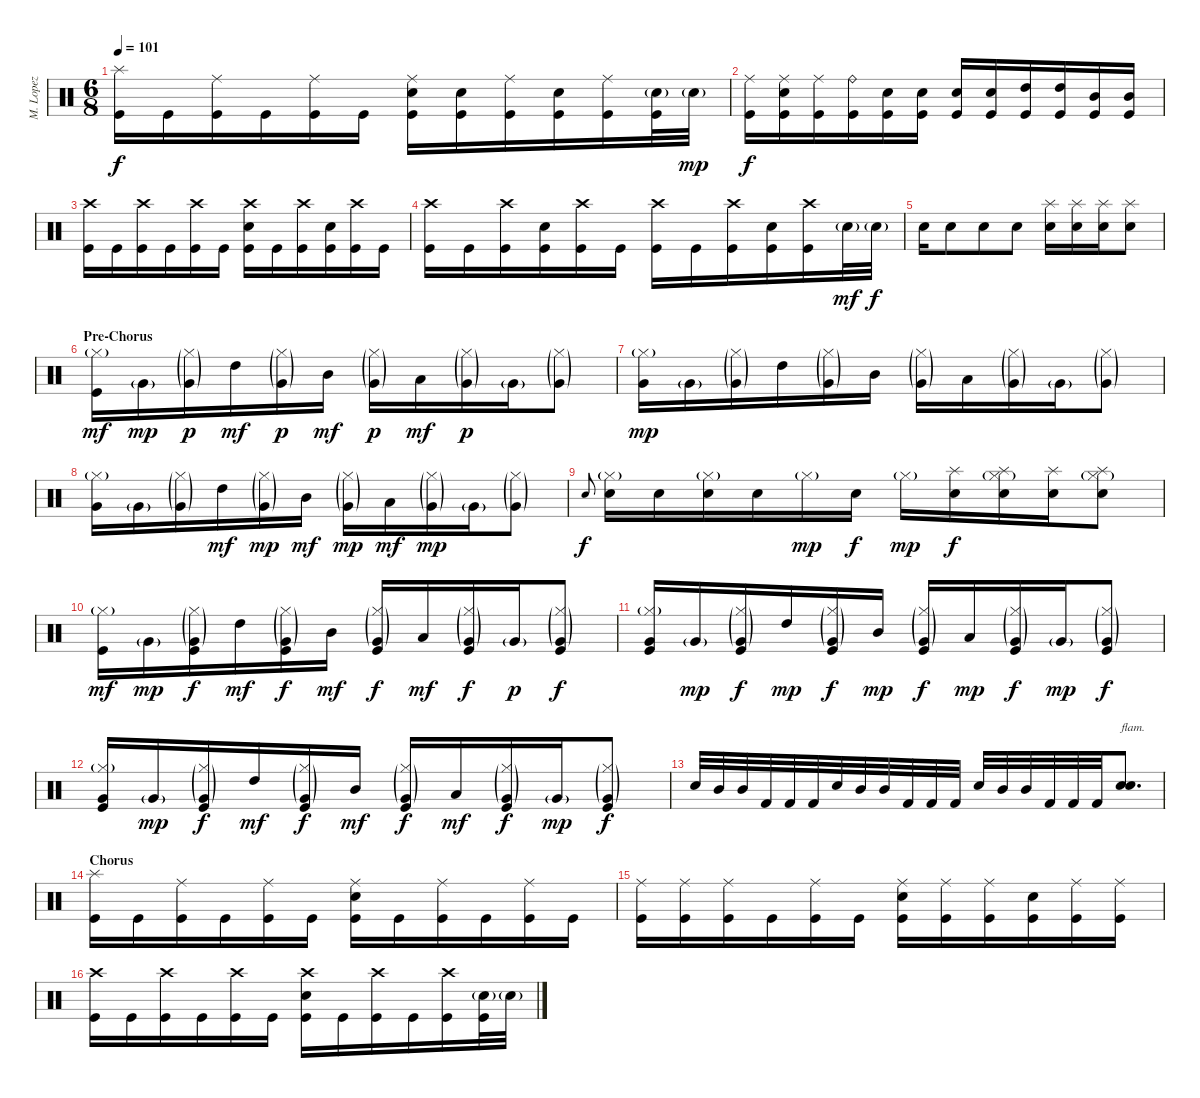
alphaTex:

\track ("M. Lopez" "M. Lopez") {instrument percussion}
\staff {score}
\articulation defaults
\ts (6 8)
\tempo 101
\clef neutral
\ks c
("Splash (hit)" "Kick (hit)").16{dy f} "Kick (hit)".16 ("Ride (middle)" "Kick (hit)").16 "Kick (hit)".16 ("Ride (middle)" "Kick (hit)").16 "Kick (hit)".16 ("Ride (middle)" "Electric Snare (hit)" "Kick (hit)").16 ("Electric Snare (hit)" "Kick (hit)").16 ("Ride (middle)" "Kick (hit)").16 ("Electric Snare (hit)" "Kick (hit)").16 ("Ride (middle)" "Kick (hit)").16 ("Electric Snare (hit)"{g} "Kick (hit)").32 "Electric Snare (hit)"{g}.32{dy mp} |
("Ride (middle)" "Kick (hit)").16{dy f} ("Ride (middle)" "Electric Snare (hit)" "Kick (hit)").16 ("Ride (middle)" "Kick (hit)").16 ("Ride (bell)" "Kick (hit)").16 ("Electric Snare (hit)" "Kick (hit)").16 ("Electric Snare (hit)" "Kick (hit)").16 ("Electric Snare (hit)" "Kick (hit)").16 ("Electric Snare (hit)" "Kick (hit)").16 ("High Tom (hit)" "Kick (hit)").16 ("High Tom (hit)" "Kick (hit)").16 ("Mid Tom (hit)" "Kick (hit)").16 ("Mid Tom (hit)" "Kick (hit)").16 |
("Crash high (hit)" "Kick (hit)").16 "Kick (hit)".16 ("Crash high (hit)" "Kick (hit)").16 "Kick (hit)".16 ("Crash high (hit)" "Kick (hit)").16 "Kick (hit)".16 ("Crash high (hit)" "Electric Snare (hit)" "Kick (hit)").16 "Kick (hit)".16 ("Crash high (hit)" "Kick (hit)").16 ("Electric Snare (hit)" "Kick (hit)").16 ("Crash high (hit)" "Kick (hit)").16 "Kick (hit)".16 |
("Crash high (hit)" "Kick (hit)").16 "Kick (hit)".16 ("Crash high (hit)" "Kick (hit)").16 ("Electric Snare (hit)" "Kick (hit)").16 ("Crash high (hit)" "Kick (hit)").16 "Kick (hit)".16 ("Crash high (hit)" "Kick (hit)").16 "Kick (hit)".16 ("Crash high (hit)" "Kick (hit)").16 ("Electric Snare (hit)" "Kick (hit)").16 ("Crash high (hit)" "Kick (hit)").16 "Electric Snare (hit)"{g}.32{dy mf} "Electric Snare (hit)"{g}.32{dy f} |
"Electric Snare (hit)".16 "Electric Snare (hit)".8 "Electric Snare (hit)".8 "Electric Snare (hit)".8 ("Splash (hit)" "Electric Snare (hit)").16 ("Splash (hit)" "Electric Snare (hit)").16 ("Splash (hit)" "Electric Snare (hit)").16 ("Splash (hit)" "Electric Snare (hit)").8 |
\section ("" "Pre-Chorus")
("Hi-Hat (closed)"{g} "Kick (hit)").16{dy mf} "Very Low Tom (hit)"{g}.16{dy mp} ("Hi-Hat (closed)"{g} "Very Low Tom (hit)"{g}).16{dy p} "High Tom (hit)".16{dy mf} ("Hi-Hat (closed)"{g} "Very Low Tom (hit)"{g}).16{dy p} "Mid Tom (hit)".16{dy mf} ("Hi-Hat (closed)"{g} "Very Low Tom (hit)"{g}).16{dy p} "Low Tom (hit)".16{dy mf} ("Hi-Hat (closed)"{g} "Very Low Tom (hit)"{g}).16{dy p} "Very Low Tom (hit)"{g}.16 ("Hi-Hat (closed)"{g} "Very Low Tom (hit)"{g}).8 |
("Hi-Hat (closed)"{g} "Very Low Tom (hit)").16{dy mp} "Very Low Tom (hit)"{g}.16 ("Hi-Hat (closed)"{g} "Very Low Tom (hit)"{g}).16 "High Tom (hit)".16 ("Hi-Hat (closed)"{g} "Very Low Tom (hit)"{g}).16 "Mid Tom (hit)".16 ("Hi-Hat (closed)"{g} "Very Low Tom (hit)"{g}).16 "Low Tom (hit)".16 ("Hi-Hat (closed)"{g} "Very Low Tom (hit)"{g}).16 "Very Low Tom (hit)"{g}.16 ("Hi-Hat (closed)"{g} "Very Low Tom (hit)"{g}).8 |
("Hi-Hat (closed)"{g} "Very Low Tom (hit)").16 "Very Low Tom (hit)"{g}.16 ("Hi-Hat (closed)"{g} "Very Low Tom (hit)"{g}).16 "High Tom (hit)".16{dy mf} ("Hi-Hat (closed)"{g} "Very Low Tom (hit)"{g}).16{dy mp} "Mid Tom (hit)".16{dy mf} ("Hi-Hat (closed)"{g} "Very Low Tom (hit)"{g}).16{dy mp} "Low Tom (hit)".16{dy mf} ("Hi-Hat (closed)"{g} "Very Low Tom (hit)"{g}).16{dy mp} "Very Low Tom (hit)"{g}.16 ("Hi-Hat (closed)"{g} "Very Low Tom (hit)"{g}).8 |
"Electric Snare (hit)"{h}.8{gr onbeat dy f} ("Hi-Hat (closed)"{g} "Electric Snare (hit)").16 "Electric Snare (hit)".16 ("Hi-Hat (closed)"{g} "Electric Snare (hit)").16 "Electric Snare (hit)".16 "Hi-Hat (closed)"{g}.16{dy mp} "Electric Snare (hit)".16{dy f} "Hi-Hat (closed)"{g}.16{dy mp} ("Splash (hit)" "Electric Snare (hit)").16{dy f} ("Splash (hit)" "Hi-Hat (closed)"{g} "Electric Snare (hit)").16 ("Splash (hit)" "Electric Snare (hit)").16 ("Splash (hit)" "Hi-Hat (closed)"{g} "Electric Snare (hit)").8 |
("Hi-Hat (closed)"{g} "Kick (hit)").16{dy mf} "Very Low Tom (hit)"{g}.16{dy mp} ("Hi-Hat (closed)"{g} "Very Low Tom (hit)"{g} "Kick (hit)").16{dy f} "High Tom (hit)".16{dy mf} ("Hi-Hat (closed)"{g} "Very Low Tom (hit)"{g} "Kick (hit)").16{dy f} "Mid Tom (hit)".16{dy mf} ("Hi-Hat (closed)"{g} "Very Low Tom (hit)"{g} "Kick (hit)").16{dy f} "Low Tom (hit)".16{dy mf} ("Hi-Hat (closed)"{g} "Very Low Tom (hit)"{g} "Kick (hit)").16{dy f} "Very Low Tom (hit)"{g}.16{dy p} ("Hi-Hat (closed)"{g} "Very Low Tom (hit)"{g} "Kick (hit)").8{dy f} |
("Hi-Hat (closed)"{g} "Very Low Tom (hit)" "Kick (hit)").16 "Very Low Tom (hit)"{g}.16{dy mp} ("Hi-Hat (closed)"{g} "Very Low Tom (hit)"{g} "Kick (hit)").16{dy f} "High Tom (hit)".16{dy mp} ("Hi-Hat (closed)"{g} "Very Low Tom (hit)"{g} "Kick (hit)").16{dy f} "Mid Tom (hit)".16{dy mp} ("Hi-Hat (closed)"{g} "Very Low Tom (hit)"{g} "Kick (hit)").16{dy f} "Low Tom (hit)".16{dy mp} ("Hi-Hat (closed)"{g} "Very Low Tom (hit)"{g} "Kick (hit)").16{dy f} "Very Low Tom (hit)"{g}.16{dy mp} ("Hi-Hat (closed)"{g} "Very Low Tom (hit)"{g} "Kick (hit)").8{dy f} |
("Hi-Hat (closed)"{g} "Very Low Tom (hit)" "Kick (hit)").16 "Very Low Tom (hit)"{g}.16{dy mp} ("Hi-Hat (closed)"{g} "Very Low Tom (hit)"{g} "Kick (hit)").16{dy f} "High Tom (hit)".16{dy mf} ("Hi-Hat (closed)"{g} "Very Low Tom (hit)"{g} "Kick (hit)").16{dy f} "Mid Tom (hit)".16{dy mf} ("Hi-Hat (closed)"{g} "Very Low Tom (hit)"{g} "Kick (hit)").16{dy f} "Low Tom (hit)".16{dy mf} ("Hi-Hat (closed)"{g} "Very Low Tom (hit)"{g} "Kick (hit)").16{dy f} "Very Low Tom (hit)"{g}.16{dy mp} ("Hi-Hat (closed)"{g} "Very Low Tom (hit)"{g} "Kick (hit)").8{dy f} |
"Electric Snare (hit)".32 "Mid Tom (hit)".32 "Mid Tom (hit)".32 "Kick (hit) 2".32 "Kick (hit) 2".32 "Kick (hit) 2".32 "Electric Snare (hit)".32 "Mid Tom (hit)".32 "Mid Tom (hit)".32 "Kick (hit) 2".32 "Kick (hit) 2".32 "Kick (hit) 2".32 "Electric Snare (hit)".32 "Mid Tom (hit)".32 "Mid Tom (hit)".32 "Kick (hit) 2".32 "Kick (hit) 2".32 "Kick (hit) 2".32 ("Electric Snare (hit)" "Electric Snare (hit)").8{d bd 120 txt "flam."} |
\section ("" "Chorus")
("Splash (hit)" "Kick (hit)").16 "Kick (hit)".16 ("Ride (middle)" "Kick (hit)").16 "Kick (hit)".16 ("Ride (middle)" "Kick (hit)").16 "Kick (hit)".16 ("Ride (middle)" "Electric Snare (hit)" "Kick (hit)").16 "Kick (hit)".16 ("Ride (middle)" "Kick (hit)").16 "Kick (hit)".16 ("Ride (middle)" "Kick (hit)").16 "Kick (hit)".16 |
("Ride (middle)" "Kick (hit)").16 ("Ride (middle)" "Kick (hit)").16 ("Ride (middle)" "Kick (hit)").16 "Kick (hit)".16 ("Ride (middle)" "Kick (hit)").16 "Kick (hit)".16 ("Ride (middle)" "Electric Snare (hit)" "Kick (hit)").16 ("Ride (middle)" "Kick (hit)").16 ("Ride (middle)" "Kick (hit)").16 ("Electric Snare (hit)" "Kick (hit)").16 ("Ride (middle)" "Kick (hit)").16 ("Ride (middle)" "Kick (hit)").16 |
("Crash high (hit)" "Kick (hit)").16 "Kick (hit)".16 ("Crash high (hit)" "Kick (hit)").16 "Kick (hit)".16 ("Crash high (hit)" "Kick (hit)").16 "Kick (hit)".16 ("Crash high (hit)" "Electric Snare (hit)" "Kick (hit)").16 "Kick (hit)".16 ("Crash high (hit)" "Kick (hit)").16 "Kick (hit)".16 ("Crash high (hit)" "Kick (hit)").16 ("Electric Snare (hit)"{g} "Kick (hit)").32 "Electric Snare (hit)"{g}.32
